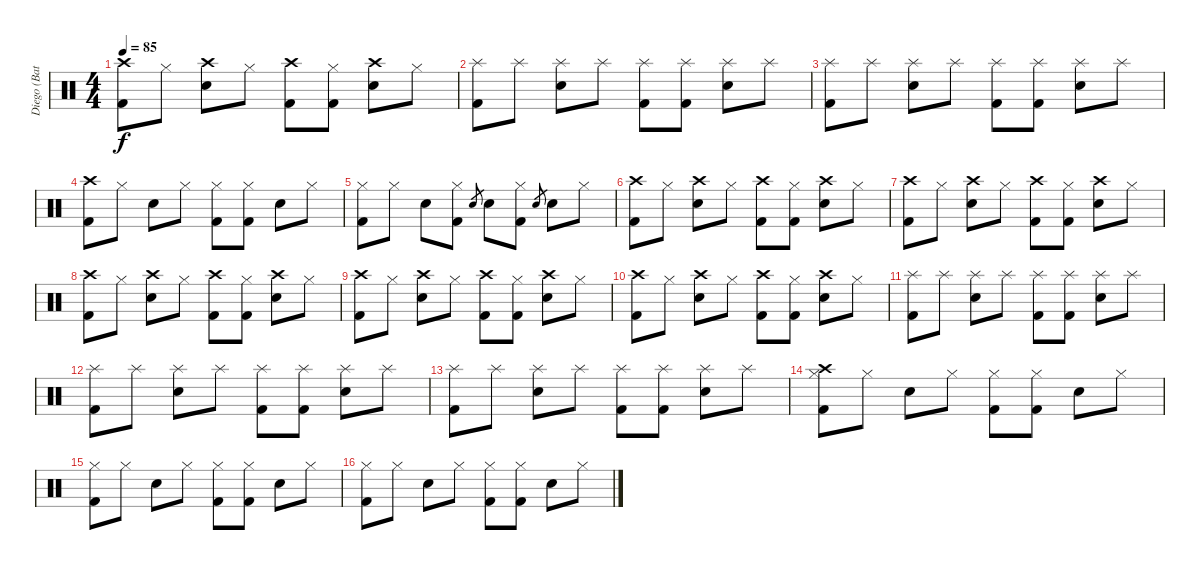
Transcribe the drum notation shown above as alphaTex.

\track ("Diego (Bateria)" "Diego (Bat") {instrument percussion}
\staff {score}
\articulation defaults
\ts (4 4)
\tempo 85
\clef neutral
\ks c
("Crash high (hit)" "Kick (hit) 2").8{dy f} "Hi-Hat (closed)".8 ("Crash high (hit)" "Electric Snare (hit)").8 "Hi-Hat (closed)".8 ("Crash high (hit)" "Kick (hit) 2").8 ("Hi-Hat (closed)" "Kick (hit) 2").8 ("Crash high (hit)" "Electric Snare (hit)").8 "Hi-Hat (closed)".8 |
("Splash (hit)" "Kick (hit) 2").8 "Splash (hit)".8 ("Splash (hit)" "Electric Snare (hit)").8 "Splash (hit)".8 ("Splash (hit)" "Kick (hit) 2").8 ("Splash (hit)" "Kick (hit) 2").8 ("Splash (hit)" "Electric Snare (hit)").8 "Splash (hit)".8 |
("Splash (hit)" "Kick (hit) 2").8 "Splash (hit)".8 ("Splash (hit)" "Electric Snare (hit)").8 "Splash (hit)".8 ("Splash (hit)" "Kick (hit) 2").8 ("Splash (hit)" "Kick (hit) 2").8 ("Splash (hit)" "Electric Snare (hit)").8 "Splash (hit)".8 |
("Crash high (hit)" "Kick (hit) 2").8 "Hi-Hat (closed)".8 "Electric Snare (hit)".8 "Hi-Hat (closed)".8 ("Hi-Hat (closed)" "Kick (hit) 2").8 ("Hi-Hat (closed)" "Kick (hit) 2").8 "Electric Snare (hit)".8 "Hi-Hat (closed)".8 |
("Hi-Hat (closed)" "Kick (hit) 2").8 "Hi-Hat (closed)".8 "Electric Snare (hit)".8 ("Hi-Hat (closed)" "Kick (hit) 2").8 "Electric Snare (hit)".8{gr} "Electric Snare (hit)".8 ("Hi-Hat (closed)" "Kick (hit) 2").8 "Electric Snare (hit)".8{gr} "Electric Snare (hit)".8 "Hi-Hat (closed)".8 |
("Crash high (hit)" "Kick (hit) 2").8 "Hi-Hat (closed)".8 ("Crash high (hit)" "Electric Snare (hit)").8 "Hi-Hat (closed)".8 ("Crash high (hit)" "Kick (hit) 2").8 ("Hi-Hat (closed)" "Kick (hit) 2").8 ("Crash high (hit)" "Electric Snare (hit)").8 "Hi-Hat (closed)".8 |
("Crash high (hit)" "Kick (hit) 2").8 "Hi-Hat (closed)".8 ("Crash high (hit)" "Electric Snare (hit)").8 "Hi-Hat (closed)".8 ("Crash high (hit)" "Kick (hit) 2").8 ("Hi-Hat (closed)" "Kick (hit) 2").8 ("Crash high (hit)" "Electric Snare (hit)").8 "Hi-Hat (closed)".8 |
("Crash high (hit)" "Kick (hit) 2").8 "Hi-Hat (closed)".8 ("Crash high (hit)" "Electric Snare (hit)").8 "Hi-Hat (closed)".8 ("Crash high (hit)" "Kick (hit) 2").8 ("Hi-Hat (closed)" "Kick (hit) 2").8 ("Crash high (hit)" "Electric Snare (hit)").8 "Hi-Hat (closed)".8 |
("Crash high (hit)" "Kick (hit) 2").8 "Hi-Hat (closed)".8 ("Crash high (hit)" "Electric Snare (hit)").8 "Hi-Hat (closed)".8 ("Crash high (hit)" "Kick (hit) 2").8 ("Hi-Hat (closed)" "Kick (hit) 2").8 ("Crash high (hit)" "Electric Snare (hit)").8 "Hi-Hat (closed)".8 |
("Crash high (hit)" "Kick (hit) 2").8 "Hi-Hat (closed)".8 ("Crash high (hit)" "Electric Snare (hit)").8 "Hi-Hat (closed)".8 ("Crash high (hit)" "Kick (hit) 2").8 ("Hi-Hat (closed)" "Kick (hit) 2").8 ("Crash high (hit)" "Electric Snare (hit)").8 "Hi-Hat (closed)".8 |
("Splash (hit)" "Kick (hit) 2").8 "Splash (hit)".8 ("Splash (hit)" "Electric Snare (hit)").8 "Splash (hit)".8 ("Splash (hit)" "Kick (hit) 2").8 ("Splash (hit)" "Kick (hit) 2").8 ("Splash (hit)" "Electric Snare (hit)").8 "Splash (hit)".8 |
("Splash (hit)" "Kick (hit) 2").8 "Splash (hit)".8 ("Splash (hit)" "Electric Snare (hit)").8 "Splash (hit)".8 ("Splash (hit)" "Kick (hit) 2").8 ("Splash (hit)" "Kick (hit) 2").8 ("Splash (hit)" "Electric Snare (hit)").8 "Splash (hit)".8 |
("Splash (hit)" "Kick (hit) 2").8 "Splash (hit)".8 ("Splash (hit)" "Electric Snare (hit)").8 "Splash (hit)".8 ("Splash (hit)" "Kick (hit) 2").8 ("Splash (hit)" "Kick (hit) 2").8 ("Splash (hit)" "Electric Snare (hit)").8 "Splash (hit)".8 |
("Crash high (hit)" "Hi-Hat (closed)" "Kick (hit) 2").8 "Hi-Hat (closed)".8 "Electric Snare (hit)".8 "Hi-Hat (closed)".8 ("Hi-Hat (closed)" "Kick (hit) 2").8 ("Hi-Hat (closed)" "Kick (hit) 2").8 "Electric Snare (hit)".8 "Hi-Hat (closed)".8 |
("Hi-Hat (closed)" "Kick (hit) 2").8 "Hi-Hat (closed)".8 "Electric Snare (hit)".8 "Hi-Hat (closed)".8 ("Hi-Hat (closed)" "Kick (hit) 2").8 ("Hi-Hat (closed)" "Kick (hit) 2").8 "Electric Snare (hit)".8 "Hi-Hat (closed)".8 |
("Hi-Hat (closed)" "Kick (hit) 2").8 "Hi-Hat (closed)".8 "Electric Snare (hit)".8 "Hi-Hat (closed)".8 ("Hi-Hat (closed)" "Kick (hit) 2").8 ("Hi-Hat (closed)" "Kick (hit) 2").8 "Electric Snare (hit)".8 "Hi-Hat (closed)".8
